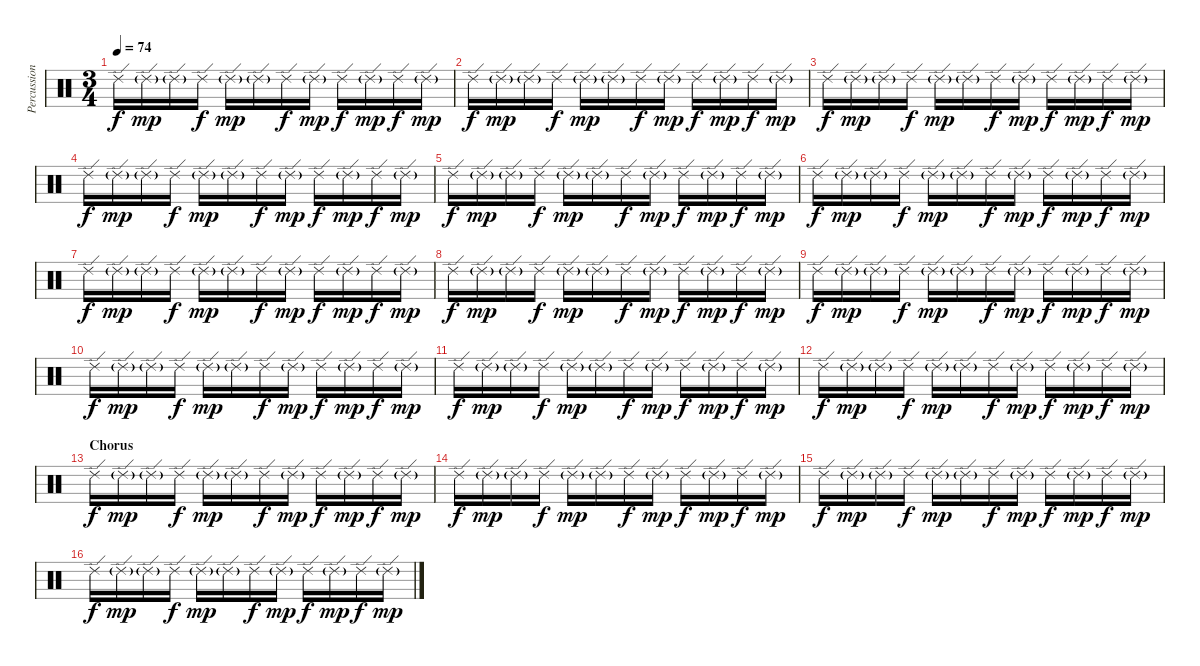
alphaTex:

\track ("Percussion" "Percussion") {instrument percussion}
\staff {score}
\articulation defaults
\ts (3 4)
\tempo 74
\clef neutral
\ks c "Ride (edge) 2".16{dy f} "Ride (edge) 2"{g}.16{dy mp} "Ride (edge) 2"{g}.16 "Ride (edge) 2".16{dy f} "Ride (edge) 2"{g}.16{dy mp} "Ride (edge) 2"{g}.16 "Ride (edge) 2".16{dy f} "Ride (edge) 2"{g}.16{dy mp} "Ride (edge) 2".16{dy f} "Ride (edge) 2"{g}.16{dy mp} "Ride (edge) 2".16{dy f} "Ride (edge) 2"{g}.16{dy mp}
|
"Ride (edge) 2".16{dy f} "Ride (edge) 2"{g}.16{dy mp} "Ride (edge) 2"{g}.16 "Ride (edge) 2".16{dy f} "Ride (edge) 2"{g}.16{dy mp} "Ride (edge) 2"{g}.16 "Ride (edge) 2".16{dy f} "Ride (edge) 2"{g}.16{dy mp} "Ride (edge) 2".16{dy f} "Ride (edge) 2"{g}.16{dy mp} "Ride (edge) 2".16{dy f} "Ride (edge) 2"{g}.16{dy mp} |
"Ride (edge) 2".16{dy f} "Ride (edge) 2"{g}.16{dy mp} "Ride (edge) 2"{g}.16 "Ride (edge) 2".16{dy f} "Ride (edge) 2"{g}.16{dy mp} "Ride (edge) 2"{g}.16 "Ride (edge) 2".16{dy f} "Ride (edge) 2"{g}.16{dy mp} "Ride (edge) 2".16{dy f} "Ride (edge) 2"{g}.16{dy mp} "Ride (edge) 2".16{dy f} "Ride (edge) 2"{g}.16{dy mp} |
"Ride (edge) 2".16{dy f} "Ride (edge) 2"{g}.16{dy mp} "Ride (edge) 2"{g}.16 "Ride (edge) 2".16{dy f} "Ride (edge) 2"{g}.16{dy mp} "Ride (edge) 2"{g}.16 "Ride (edge) 2".16{dy f} "Ride (edge) 2"{g}.16{dy mp} "Ride (edge) 2".16{dy f} "Ride (edge) 2"{g}.16{dy mp} "Ride (edge) 2".16{dy f} "Ride (edge) 2"{g}.16{dy mp} |
"Ride (edge) 2".16{dy f} "Ride (edge) 2"{g}.16{dy mp} "Ride (edge) 2"{g}.16 "Ride (edge) 2".16{dy f} "Ride (edge) 2"{g}.16{dy mp} "Ride (edge) 2"{g}.16 "Ride (edge) 2".16{dy f} "Ride (edge) 2"{g}.16{dy mp} "Ride (edge) 2".16{dy f} "Ride (edge) 2"{g}.16{dy mp} "Ride (edge) 2".16{dy f} "Ride (edge) 2"{g}.16{dy mp} |
"Ride (edge) 2".16{dy f} "Ride (edge) 2"{g}.16{dy mp} "Ride (edge) 2"{g}.16 "Ride (edge) 2".16{dy f} "Ride (edge) 2"{g}.16{dy mp} "Ride (edge) 2"{g}.16 "Ride (edge) 2".16{dy f} "Ride (edge) 2"{g}.16{dy mp} "Ride (edge) 2".16{dy f} "Ride (edge) 2"{g}.16{dy mp} "Ride (edge) 2".16{dy f} "Ride (edge) 2"{g}.16{dy mp} |
"Ride (edge) 2".16{dy f} "Ride (edge) 2"{g}.16{dy mp} "Ride (edge) 2"{g}.16 "Ride (edge) 2".16{dy f} "Ride (edge) 2"{g}.16{dy mp} "Ride (edge) 2"{g}.16 "Ride (edge) 2".16{dy f} "Ride (edge) 2"{g}.16{dy mp} "Ride (edge) 2".16{dy f} "Ride (edge) 2"{g}.16{dy mp} "Ride (edge) 2".16{dy f} "Ride (edge) 2"{g}.16{dy mp} |
"Ride (edge) 2".16{dy f} "Ride (edge) 2"{g}.16{dy mp} "Ride (edge) 2"{g}.16 "Ride (edge) 2".16{dy f} "Ride (edge) 2"{g}.16{dy mp} "Ride (edge) 2"{g}.16 "Ride (edge) 2".16{dy f} "Ride (edge) 2"{g}.16{dy mp} "Ride (edge) 2".16{dy f} "Ride (edge) 2"{g}.16{dy mp} "Ride (edge) 2".16{dy f} "Ride (edge) 2"{g}.16{dy mp} |
"Ride (edge) 2".16{dy f} "Ride (edge) 2"{g}.16{dy mp} "Ride (edge) 2"{g}.16 "Ride (edge) 2".16{dy f} "Ride (edge) 2"{g}.16{dy mp} "Ride (edge) 2"{g}.16 "Ride (edge) 2".16{dy f} "Ride (edge) 2"{g}.16{dy mp} "Ride (edge) 2".16{dy f} "Ride (edge) 2"{g}.16{dy mp} "Ride (edge) 2".16{dy f} "Ride (edge) 2"{g}.16{dy mp} |
"Ride (edge) 2".16{dy f} "Ride (edge) 2"{g}.16{dy mp} "Ride (edge) 2"{g}.16 "Ride (edge) 2".16{dy f} "Ride (edge) 2"{g}.16{dy mp} "Ride (edge) 2"{g}.16 "Ride (edge) 2".16{dy f} "Ride (edge) 2"{g}.16{dy mp} "Ride (edge) 2".16{dy f} "Ride (edge) 2"{g}.16{dy mp} "Ride (edge) 2".16{dy f} "Ride (edge) 2"{g}.16{dy mp} |
"Ride (edge) 2".16{dy f} "Ride (edge) 2"{g}.16{dy mp} "Ride (edge) 2"{g}.16 "Ride (edge) 2".16{dy f} "Ride (edge) 2"{g}.16{dy mp} "Ride (edge) 2"{g}.16 "Ride (edge) 2".16{dy f} "Ride (edge) 2"{g}.16{dy mp} "Ride (edge) 2".16{dy f} "Ride (edge) 2"{g}.16{dy mp} "Ride (edge) 2".16{dy f} "Ride (edge) 2"{g}.16{dy mp} |
"Ride (edge) 2".16{dy f} "Ride (edge) 2"{g}.16{dy mp} "Ride (edge) 2"{g}.16 "Ride (edge) 2".16{dy f} "Ride (edge) 2"{g}.16{dy mp} "Ride (edge) 2"{g}.16 "Ride (edge) 2".16{dy f} "Ride (edge) 2"{g}.16{dy mp} "Ride (edge) 2".16{dy f} "Ride (edge) 2"{g}.16{dy mp} "Ride (edge) 2".16{dy f} "Ride (edge) 2"{g}.16{dy mp} |
\section ("" "Chorus")
"Ride (edge) 2".16{dy f} "Ride (edge) 2"{g}.16{dy mp} "Ride (edge) 2"{g}.16 "Ride (edge) 2".16{dy f} "Ride (edge) 2"{g}.16{dy mp} "Ride (edge) 2"{g}.16 "Ride (edge) 2".16{dy f} "Ride (edge) 2"{g}.16{dy mp} "Ride (edge) 2".16{dy f} "Ride (edge) 2"{g}.16{dy mp} "Ride (edge) 2".16{dy f} "Ride (edge) 2"{g}.16{dy mp} |
"Ride (edge) 2".16{dy f} "Ride (edge) 2"{g}.16{dy mp} "Ride (edge) 2"{g}.16 "Ride (edge) 2".16{dy f} "Ride (edge) 2"{g}.16{dy mp} "Ride (edge) 2"{g}.16 "Ride (edge) 2".16{dy f} "Ride (edge) 2"{g}.16{dy mp} "Ride (edge) 2".16{dy f} "Ride (edge) 2"{g}.16{dy mp} "Ride (edge) 2".16{dy f} "Ride (edge) 2"{g}.16{dy mp} |
"Ride (edge) 2".16{dy f} "Ride (edge) 2"{g}.16{dy mp} "Ride (edge) 2"{g}.16 "Ride (edge) 2".16{dy f} "Ride (edge) 2"{g}.16{dy mp} "Ride (edge) 2"{g}.16 "Ride (edge) 2".16{dy f} "Ride (edge) 2"{g}.16{dy mp} "Ride (edge) 2".16{dy f} "Ride (edge) 2"{g}.16{dy mp} "Ride (edge) 2".16{dy f} "Ride (edge) 2"{g}.16{dy mp} |
"Ride (edge) 2".16{dy f} "Ride (edge) 2"{g}.16{dy mp} "Ride (edge) 2"{g}.16 "Ride (edge) 2".16{dy f} "Ride (edge) 2"{g}.16{dy mp} "Ride (edge) 2"{g}.16 "Ride (edge) 2".16{dy f} "Ride (edge) 2"{g}.16{dy mp} "Ride (edge) 2".16{dy f} "Ride (edge) 2"{g}.16{dy mp} "Ride (edge) 2".16{dy f} "Ride (edge) 2"{g}.16{dy mp}
